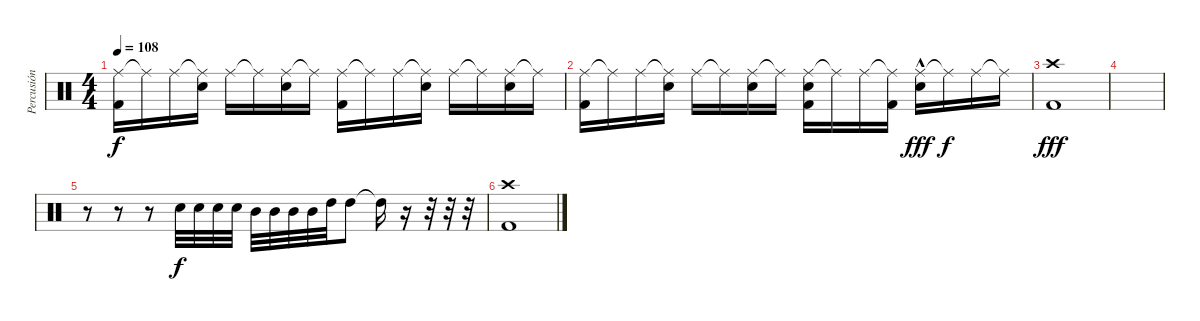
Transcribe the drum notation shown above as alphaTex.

\track ("Percusión" "Percusión") {instrument percussion}
\staff {score}
\articulation defaults
\ts (4 4)
\tempo 108
\clef neutral
\ks c
("Ride (middle)" "Kick (hit) 2").16{dy f} "Ride (middle)"{t}.16 "Ride (middle)".16 ("Ride (middle)"{t} "Snare (hit) 2").16 "Ride (middle)".16 "Ride (middle)"{t}.16 ("Ride (middle)" "Snare (hit) 2").16 "Ride (middle)"{t}.16 ("Ride (middle)" "Kick (hit) 2").16 "Ride (middle)"{t}.16 "Ride (middle)".16 ("Ride (middle)"{t} "Snare (hit) 2").16 "Ride (middle)".16 "Ride (middle)"{t}.16 ("Ride (middle)" "Snare (hit) 2").16 "Ride (middle)"{t}.16 |
("Ride (middle)" "Kick (hit) 2").16 "Ride (middle)"{t}.16 "Ride (middle)".16 ("Ride (middle)"{t} "Snare (hit) 2").16 "Ride (middle)".16 "Ride (middle)"{t}.16 ("Ride (middle)" "Snare (hit) 2").16 "Ride (middle)"{t}.16 ("Ride (middle)" "Snare (hit) 2" "Kick (hit) 2").16 "Ride (middle)"{t}.16 "Ride (middle)".16 ("Ride (middle)"{t} "Kick (hit) 2").16 ("Ride (middle)" "Snare (hit) 2"{hac}).16{dy fff} "Ride (middle)"{t}.16{dy f} "Ride (middle)".16 "Ride (middle)"{t}.16 |
("Crash high (hit)" "Kick (hit) 2").1{dy fff} |
|
r.8 r.8 r.8 "Snare (hit) 2".32{dy f} "Snare (hit) 2".32 "Snare (hit) 2".32 "Snare (hit) 2".32 "Mid Tom (hit)".32 "Mid Tom (hit)".32 "Mid Tom (hit)".32 "Mid Tom (hit)".32 "High Tom (hit)".32 "High Tom (hit)".8 "High Tom (hit)"{t}.16 r.16 r.32 r.32 r.32 |
("Crash high (hit)" "Kick (hit) 2").1
